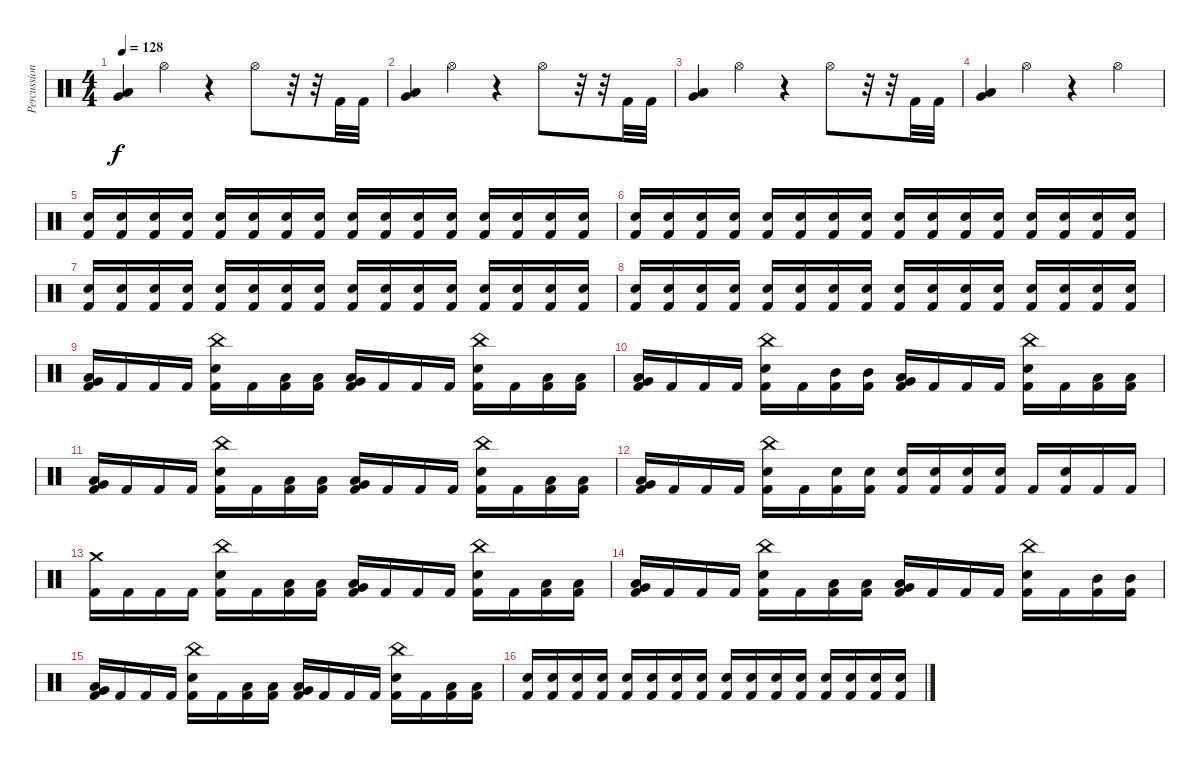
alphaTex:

\track ("Percussion" "Percussion") {instrument percussion}
\staff {score}
\articulation defaults
\ts (4 4)
\tempo 128
\clef neutral
\ks c
("Low Tom (hit)" "Very Low Tom (hit)").4{dy f} "Hi-Hat (open)".4 r.4 "Hi-Hat (open)".8 r.32 r.32 "Kick (hit) 2".32 "Kick (hit) 2".32 |
("Low Tom (hit)" "Very Low Tom (hit)").4 "Hi-Hat (open)".4 r.4 "Hi-Hat (open)".8 r.32 r.32 "Kick (hit) 2".32 "Kick (hit) 2".32 |
("Low Tom (hit)" "Very Low Tom (hit)").4 "Hi-Hat (open)".4 r.4 "Hi-Hat (open)".8 r.32 r.32 "Kick (hit) 2".32 "Kick (hit) 2".32 |
("Low Tom (hit)" "Very Low Tom (hit)").4 "Hi-Hat (open)".4 r.4 "Hi-Hat (open)".4 |
("Snare (hit) 2" "Kick (hit) 2").16{volume 8} ("Snare (hit) 2" "Kick (hit) 2").16 ("Snare (hit) 2" "Kick (hit) 2").16 ("Snare (hit) 2" "Kick (hit) 2").16 ("Snare (hit) 2" "Kick (hit) 2").16 ("Snare (hit) 2" "Kick (hit) 2").16 ("Snare (hit) 2" "Kick (hit) 2").16 ("Snare (hit) 2" "Kick (hit) 2").16 ("Snare (hit) 2" "Kick (hit) 2").16 ("Snare (hit) 2" "Kick (hit) 2").16 ("Snare (hit) 2" "Kick (hit) 2").16{volume 9} ("Snare (hit) 2" "Kick (hit) 2").16 ("Snare (hit) 2" "Kick (hit) 2").16 ("Snare (hit) 2" "Kick (hit) 2").16 ("Snare (hit) 2" "Kick (hit) 2").16 ("Snare (hit) 2" "Kick (hit) 2").16 |
("Snare (hit) 2" "Kick (hit) 2").16 ("Snare (hit) 2" "Kick (hit) 2").16 ("Snare (hit) 2" "Kick (hit) 2").16 ("Snare (hit) 2" "Kick (hit) 2").16 ("Snare (hit) 2" "Kick (hit) 2").16{volume 10} ("Snare (hit) 2" "Kick (hit) 2").16 ("Snare (hit) 2" "Kick (hit) 2").16 ("Snare (hit) 2" "Kick (hit) 2").16 ("Snare (hit) 2" "Kick (hit) 2").16 ("Snare (hit) 2" "Kick (hit) 2").16 ("Snare (hit) 2" "Kick (hit) 2").16 ("Snare (hit) 2" "Kick (hit) 2").16 ("Snare (hit) 2" "Kick (hit) 2").16 ("Snare (hit) 2" "Kick (hit) 2").16 ("Snare (hit) 2" "Kick (hit) 2").16{volume 11} ("Snare (hit) 2" "Kick (hit) 2").16 |
("Snare (hit) 2" "Kick (hit) 2").16 ("Snare (hit) 2" "Kick (hit) 2").16 ("Snare (hit) 2" "Kick (hit) 2").16 ("Snare (hit) 2" "Kick (hit) 2").16 ("Snare (hit) 2" "Kick (hit) 2").16 ("Snare (hit) 2" "Kick (hit) 2").16 ("Snare (hit) 2" "Kick (hit) 2").16 ("Snare (hit) 2" "Kick (hit) 2").16 ("Snare (hit) 2" "Kick (hit) 2").16{volume 13} ("Snare (hit) 2" "Kick (hit) 2").16 ("Snare (hit) 2" "Kick (hit) 2").16 ("Snare (hit) 2" "Kick (hit) 2").16 ("Snare (hit) 2" "Kick (hit) 2").16 ("Snare (hit) 2" "Kick (hit) 2").16 ("Snare (hit) 2" "Kick (hit) 2").16 ("Snare (hit) 2" "Kick (hit) 2").16 |
("Snare (hit) 2" "Kick (hit) 2").16{volume 16} ("Snare (hit) 2" "Kick (hit) 2").16 ("Snare (hit) 2" "Kick (hit) 2").16 ("Snare (hit) 2" "Kick (hit) 2").16 ("Snare (hit) 2" "Kick (hit) 2").16 ("Snare (hit) 2" "Kick (hit) 2").16 ("Snare (hit) 2" "Kick (hit) 2").16 ("Snare (hit) 2" "Kick (hit) 2").16 ("Snare (hit) 2" "Kick (hit) 2").16 ("Snare (hit) 2" "Kick (hit) 2").16 ("Snare (hit) 2" "Kick (hit) 2").16 ("Snare (hit) 2" "Kick (hit) 2").16 ("Snare (hit) 2" "Kick (hit) 2").16 ("Snare (hit) 2" "Kick (hit) 2").16 ("Snare (hit) 2" "Kick (hit) 2").16 ("Snare (hit) 2" "Kick (hit) 2").16 |
("Low Tom (hit)" "Very Low Tom (hit)" "Kick (hit) 2").16 "Kick (hit) 2".16 "Kick (hit) 2".16 "Kick (hit) 2".16 ("China (hit)" "Snare (hit) 2" "Kick (hit) 2").16 "Kick (hit) 2".16 ("Low Tom (hit)" "Kick (hit) 2").16 ("Low Tom (hit)" "Kick (hit) 2").16 ("Low Tom (hit)" "Very Low Tom (hit)" "Kick (hit) 2").16 "Kick (hit) 2".16 "Kick (hit) 2".16 "Kick (hit) 2".16 ("China (hit)" "Snare (hit) 2" "Kick (hit) 2").16 "Kick (hit) 2".16 ("Low Tom (hit)" "Kick (hit) 2").16 ("Low Tom (hit)" "Kick (hit) 2").16 |
("Low Tom (hit)" "Very Low Tom (hit)" "Kick (hit) 2").16 "Kick (hit) 2".16 "Kick (hit) 2".16 "Kick (hit) 2".16 ("China (hit)" "Snare (hit) 2" "Kick (hit) 2").16 "Kick (hit) 2".16 ("Mid Tom (hit)" "Kick (hit) 2").16 ("Mid Tom (hit)" "Kick (hit) 2").16 ("Low Tom (hit)" "Very Low Tom (hit)" "Kick (hit) 2").16 "Kick (hit) 2".16 "Kick (hit) 2".16 "Kick (hit) 2".16 ("China (hit)" "Snare (hit) 2" "Kick (hit) 2").16 "Kick (hit) 2".16 ("Low Tom (hit)" "Kick (hit) 2").16 ("Low Tom (hit)" "Kick (hit) 2").16 |
("Low Tom (hit)" "Very Low Tom (hit)" "Kick (hit) 2").16 "Kick (hit) 2".16 "Kick (hit) 2".16 "Kick (hit) 2".16 ("China (hit)" "Snare (hit) 2" "Kick (hit) 2").16 "Kick (hit) 2".16 ("Low Tom (hit)" "Kick (hit) 2").16 ("Low Tom (hit)" "Kick (hit) 2").16 ("Low Tom (hit)" "Very Low Tom (hit)" "Kick (hit) 2").16 "Kick (hit) 2".16 "Kick (hit) 2".16 "Kick (hit) 2".16 ("China (hit)" "Snare (hit) 2" "Kick (hit) 2").16 "Kick (hit) 2".16 ("Low Tom (hit)" "Kick (hit) 2").16 ("Low Tom (hit)" "Kick (hit) 2").16 |
("Low Tom (hit)" "Very Low Tom (hit)" "Kick (hit) 2").16 "Kick (hit) 2".16 "Kick (hit) 2".16 "Kick (hit) 2".16 ("China (hit)" "Snare (hit) 2" "Kick (hit) 2").16 "Kick (hit) 2".16 ("Snare (hit) 2" "Kick (hit) 2").16 ("Snare (hit) 2" "Kick (hit) 2").16 ("Snare (hit) 2" "Kick (hit) 2").16 ("Snare (hit) 2" "Kick (hit) 2").16 ("Snare (hit) 2" "Kick (hit) 2").16 ("Snare (hit) 2" "Kick (hit) 2").16 "Kick (hit) 2".16 ("Snare (hit) 2" "Kick (hit) 2").16 "Kick (hit) 2".16 "Kick (hit) 2".16 |
("Crash medium (hit)" "Kick (hit) 2").16 "Kick (hit) 2".16 "Kick (hit) 2".16 "Kick (hit) 2".16 ("China (hit)" "Snare (hit) 2" "Kick (hit) 2").16 "Kick (hit) 2".16 ("Low Tom (hit)" "Kick (hit) 2").16 ("Low Tom (hit)" "Kick (hit) 2").16 ("Low Tom (hit)" "Very Low Tom (hit)" "Kick (hit) 2").16 "Kick (hit) 2".16 "Kick (hit) 2".16 "Kick (hit) 2".16 ("China (hit)" "Snare (hit) 2" "Kick (hit) 2").16 "Kick (hit) 2".16 ("Low Tom (hit)" "Kick (hit) 2").16 ("Low Tom (hit)" "Kick (hit) 2").16 |
("Low Tom (hit)" "Very Low Tom (hit)" "Kick (hit) 2").16 "Kick (hit) 2".16 "Kick (hit) 2".16 "Kick (hit) 2".16 ("China (hit)" "Snare (hit) 2" "Kick (hit) 2").16 "Kick (hit) 2".16 ("Low Tom (hit)" "Kick (hit) 2").16 ("Low Tom (hit)" "Kick (hit) 2").16 ("Low Tom (hit)" "Very Low Tom (hit)" "Kick (hit) 2").16 "Kick (hit) 2".16 "Kick (hit) 2".16 "Kick (hit) 2".16 ("China (hit)" "Snare (hit) 2" "Kick (hit) 2").16 "Kick (hit) 2".16 ("Mid Tom (hit)" "Kick (hit) 2").16 ("Mid Tom (hit)" "Kick (hit) 2").16 |
("Low Tom (hit)" "Very Low Tom (hit)" "Kick (hit) 2").16 "Kick (hit) 2".16 "Kick (hit) 2".16 "Kick (hit) 2".16 ("China (hit)" "Snare (hit) 2" "Kick (hit) 2").16 "Kick (hit) 2".16 ("Low Tom (hit)" "Kick (hit) 2").16 ("Low Tom (hit)" "Kick (hit) 2").16 ("Low Tom (hit)" "Very Low Tom (hit)" "Kick (hit) 2").16 "Kick (hit) 2".16 "Kick (hit) 2".16 "Kick (hit) 2".16 ("China (hit)" "Snare (hit) 2" "Kick (hit) 2").16 "Kick (hit) 2".16 ("Low Tom (hit)" "Kick (hit) 2").16 ("Low Tom (hit)" "Kick (hit) 2").16 |
("Snare (hit) 2" "Kick (hit) 2").16 ("Snare (hit) 2" "Kick (hit) 2").16 ("Snare (hit) 2" "Kick (hit) 2").16 ("Snare (hit) 2" "Kick (hit) 2").16 ("Snare (hit) 2" "Kick (hit) 2").16 ("Snare (hit) 2" "Kick (hit) 2").16 ("Snare (hit) 2" "Kick (hit) 2").16 ("Snare (hit) 2" "Kick (hit) 2").16 ("Snare (hit) 2" "Kick (hit) 2").16 ("Snare (hit) 2" "Kick (hit) 2").16 ("Snare (hit) 2" "Kick (hit) 2").16 ("Snare (hit) 2" "Kick (hit) 2").16 ("Snare (hit) 2" "Kick (hit) 2").16 ("Snare (hit) 2" "Kick (hit) 2").16 ("Snare (hit) 2" "Kick (hit) 2").16 ("Snare (hit) 2" "Kick (hit) 2").16
